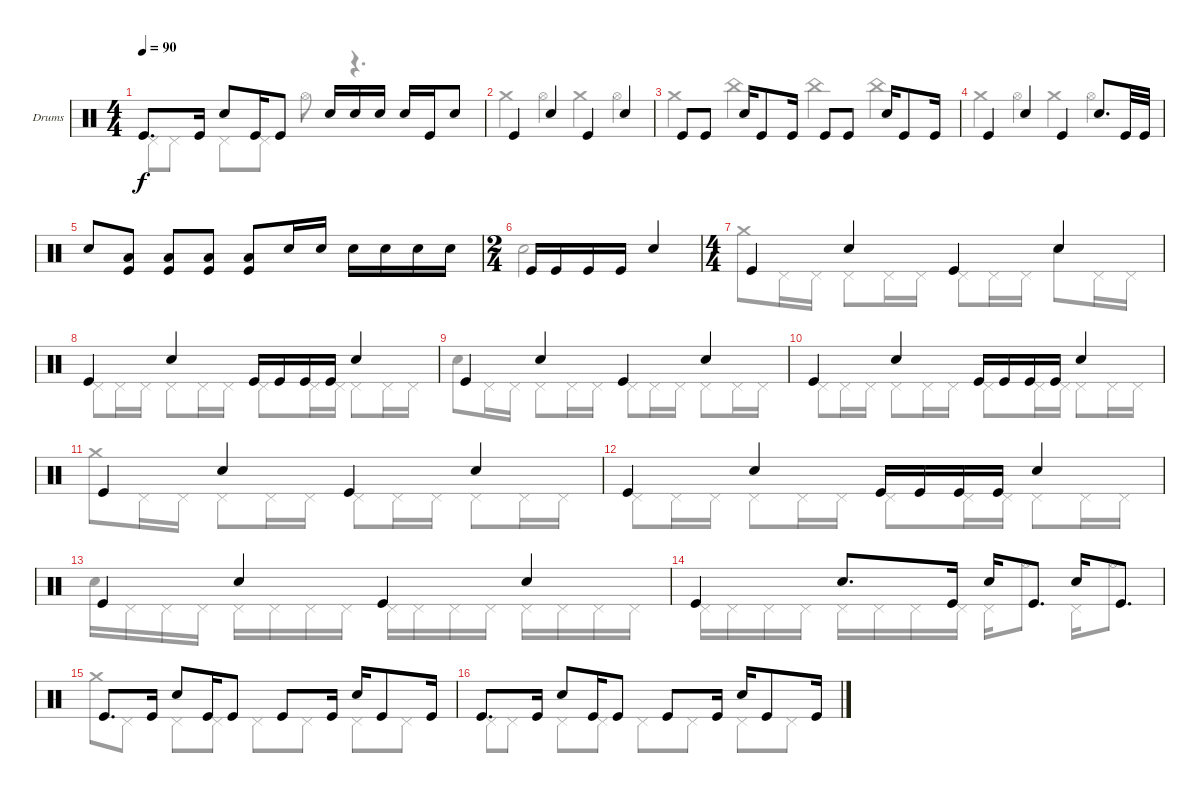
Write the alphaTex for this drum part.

\defaultSystemsLayout 4
\bracketExtendMode groupsimilarinstruments
\firstSystemTrackNameOrientation horizontal
\otherSystemsTrackNameOrientation horizontal
\track ("Drumkit" "Drums") {instrument percussion}
\staff {score}
\articulation defaults
\voice
\ts (4 4)
\tempo 90
\clef neutral
\ks c "Kick (hit)".8{d dy f} "Kick (hit)".16 "Snare (hit) 2".8 "Kick (hit)".16 "Kick (hit)".8 "Snare (hit) 2".16 "Snare (hit) 2".16 "Snare (hit) 2".16 "Snare (hit) 2".16 "Kick (hit)".16 "Snare (hit) 2".8
|
"Kick (hit)".4 "Snare (hit) 2".4 "Kick (hit)".4 "Snare (hit) 2".4 |
"Kick (hit)".8 "Kick (hit)".8 "Snare (hit) 2".16 "Kick (hit)".8 "Kick (hit)".16 "Kick (hit)".8 "Kick (hit)".8 "Snare (hit) 2".16 "Kick (hit)".8 "Kick (hit)".16 |
"Kick (hit)".4 "Snare (hit) 2".4 "Kick (hit)".4 "Snare (hit) 2".8{d} "Kick (hit)".32 "Kick (hit)".32 |
"Snare (hit) 2".8 ("Kick (hit)" "Low Tom (hit)").8 ("Low Tom (hit)" "Kick (hit)").8 ("Low Tom (hit)" "Kick (hit)").8 ("Low Tom (hit)" "Kick (hit)").8 "Snare (hit) 2".16 "Snare (hit) 2".16 "Snare (hit) 2".16 "Snare (hit) 2".16 "Snare (hit) 2".16 "Snare (hit) 2".16 |
\ts (2 4)
"Kick (hit)".16 "Kick (hit)".16 "Kick (hit)".16 "Kick (hit)".16 "Snare (hit) 2".4 |
\ts (4 4)
"Kick (hit)".4 "Snare (hit) 2".4 "Kick (hit)".4 "Snare (hit) 2".4 |
"Kick (hit)".4 "Snare (hit) 2".4 "Kick (hit)".16 "Kick (hit)".16 "Kick (hit)".16 "Kick (hit)".16 "Snare (hit) 2".4 |
"Kick (hit)".4 "Snare (hit) 2".4 "Kick (hit)".4 "Snare (hit) 2".4 |
"Kick (hit)".4 "Snare (hit) 2".4 "Kick (hit)".16 "Kick (hit)".16 "Kick (hit)".16 "Kick (hit)".16 "Snare (hit) 2".4 |
"Kick (hit)".4 "Snare (hit) 2".4 "Kick (hit)".4 "Snare (hit) 2".4 |
"Kick (hit)".4 "Snare (hit) 2".4 "Kick (hit)".16 "Kick (hit)".16 "Kick (hit)".16 "Kick (hit)".16 "Snare (hit) 2".4 |
"Kick (hit)".4 "Snare (hit) 2".4 "Kick (hit)".4 "Snare (hit) 2".4 |
"Kick (hit)".4 "Snare (hit) 2".8{d} "Kick (hit)".16 "Snare (hit) 2".16 "Kick (hit)".8{d} "Snare (hit) 2".16 "Kick (hit)".8{d} |
"Kick (hit)".8{d} "Kick (hit)".16 "Snare (hit) 2".8 "Kick (hit)".16 "Kick (hit)".8 "Kick (hit)".8 "Kick (hit)".16 "Snare (hit) 2".16 "Kick (hit)".8 "Kick (hit)".16 |
"Kick (hit)".8{d} "Kick (hit)".16 "Snare (hit) 2".8 "Kick (hit)".16 "Kick (hit)".8 "Kick (hit)".8 "Kick (hit)".16 "Snare (hit) 2".16 "Kick (hit)".8 "Kick (hit)".16
\voice
\clef neutral
\ottava regular
\simile none
\ks c "Pedal Hi-Hat (hit)".8{dy f} "Pedal Hi-Hat (hit)".8 "Pedal Hi-Hat (hit)".8 "Pedal Hi-Hat (hit)".8 "Hi-Hat (open)".8
r.4{d} |
"Crash medium (hit)".4 "Hi-Hat (open)".4 "Crash medium (hit)".4 "Hi-Hat (open)".4 |
"Crash medium (hit)".4 "China (hit)".4 "China (hit)".4 "China (hit)".4 |
"Crash medium (hit)".4 "Hi-Hat (open)".4 "Crash medium (hit)".4 "Hi-Hat (open)".4 |
|
"Snare (hit) 2".2 |
"Crash medium (hit)".8 "Pedal Hi-Hat (hit)".16 "Pedal Hi-Hat (hit)".16 "Pedal Hi-Hat (hit)".8 "Pedal Hi-Hat (hit)".16 "Pedal Hi-Hat (hit)".16 "Pedal Hi-Hat (hit)".8 "Pedal Hi-Hat (hit)".16 "Pedal Hi-Hat (hit)".16 "Snare (hit) 2".8 "Pedal Hi-Hat (hit)".16 "Pedal Hi-Hat (hit)".16 |
"Pedal Hi-Hat (hit)".8 "Pedal Hi-Hat (hit)".16 "Pedal Hi-Hat (hit)".16 "Pedal Hi-Hat (hit)".8 "Pedal Hi-Hat (hit)".16 "Pedal Hi-Hat (hit)".16 "Pedal Hi-Hat (hit)".8 "Pedal Hi-Hat (hit)".16 "Pedal Hi-Hat (hit)".16 "Pedal Hi-Hat (hit)".8 "Pedal Hi-Hat (hit)".16 "Pedal Hi-Hat (hit)".16 |
"Snare (hit) 2".8 "Pedal Hi-Hat (hit)".16 "Pedal Hi-Hat (hit)".16 "Pedal Hi-Hat (hit)".8 "Pedal Hi-Hat (hit)".16 "Pedal Hi-Hat (hit)".16 "Pedal Hi-Hat (hit)".8 "Pedal Hi-Hat (hit)".16 "Pedal Hi-Hat (hit)".16 "Pedal Hi-Hat (hit)".8 "Pedal Hi-Hat (hit)".16 "Pedal Hi-Hat (hit)".16 |
"Pedal Hi-Hat (hit)".8 "Pedal Hi-Hat (hit)".16 "Pedal Hi-Hat (hit)".16 "Pedal Hi-Hat (hit)".8 "Pedal Hi-Hat (hit)".16 "Pedal Hi-Hat (hit)".16 "Pedal Hi-Hat (hit)".8 "Pedal Hi-Hat (hit)".16 "Pedal Hi-Hat (hit)".16 "Pedal Hi-Hat (hit)".8 "Pedal Hi-Hat (hit)".16 "Pedal Hi-Hat (hit)".16 |
"Crash medium (hit)".8 "Pedal Hi-Hat (hit)".16 "Pedal Hi-Hat (hit)".16 "Pedal Hi-Hat (hit)".8 "Pedal Hi-Hat (hit)".16 "Pedal Hi-Hat (hit)".16 "Pedal Hi-Hat (hit)".8 "Pedal Hi-Hat (hit)".16 "Pedal Hi-Hat (hit)".16 "Pedal Hi-Hat (hit)".8 "Pedal Hi-Hat (hit)".16 "Pedal Hi-Hat (hit)".16 |
"Pedal Hi-Hat (hit)".8 "Pedal Hi-Hat (hit)".16 "Pedal Hi-Hat (hit)".16 "Pedal Hi-Hat (hit)".8 "Pedal Hi-Hat (hit)".16 "Pedal Hi-Hat (hit)".16 "Pedal Hi-Hat (hit)".8 "Pedal Hi-Hat (hit)".16 "Pedal Hi-Hat (hit)".16 "Pedal Hi-Hat (hit)".8 "Pedal Hi-Hat (hit)".16 "Pedal Hi-Hat (hit)".16 |
"Snare (hit) 2".16 "Pedal Hi-Hat (hit)".16 "Pedal Hi-Hat (hit)".16 "Pedal Hi-Hat (hit)".16 "Pedal Hi-Hat (hit)".16 "Pedal Hi-Hat (hit)".16 "Pedal Hi-Hat (hit)".16 "Pedal Hi-Hat (hit)".16 "Pedal Hi-Hat (hit)".16 "Pedal Hi-Hat (hit)".16 "Pedal Hi-Hat (hit)".16 "Pedal Hi-Hat (hit)".16 "Pedal Hi-Hat (hit)".16 "Pedal Hi-Hat (hit)".16 "Pedal Hi-Hat (hit)".16 "Pedal Hi-Hat (hit)".16 |
"Pedal Hi-Hat (hit)".16 "Pedal Hi-Hat (hit)".16 "Pedal Hi-Hat (hit)".16 "Pedal Hi-Hat (hit)".16 "Pedal Hi-Hat (hit)".16 "Pedal Hi-Hat (hit)".16 "Pedal Hi-Hat (hit)".16 "Pedal Hi-Hat (hit)".16 "Pedal Hi-Hat (hit)".16 "Hi-Hat (open)".8{d} "Pedal Hi-Hat (hit)".16 "Hi-Hat (open)".8{d} |
"Crash medium (hit)".8 "Pedal Hi-Hat (hit)".8 "Pedal Hi-Hat (hit)".8 "Pedal Hi-Hat (hit)".8 "Pedal Hi-Hat (hit)".8 "Pedal Hi-Hat (hit)".8 "Pedal Hi-Hat (hit)".8 "Pedal Hi-Hat (hit)".8 |
"Pedal Hi-Hat (hit)".8 "Pedal Hi-Hat (hit)".8 "Pedal Hi-Hat (hit)".8 "Pedal Hi-Hat (hit)".8 "Pedal Hi-Hat (hit)".8 "Pedal Hi-Hat (hit)".8 "Pedal Hi-Hat (hit)".8 "Pedal Hi-Hat (hit)".8
